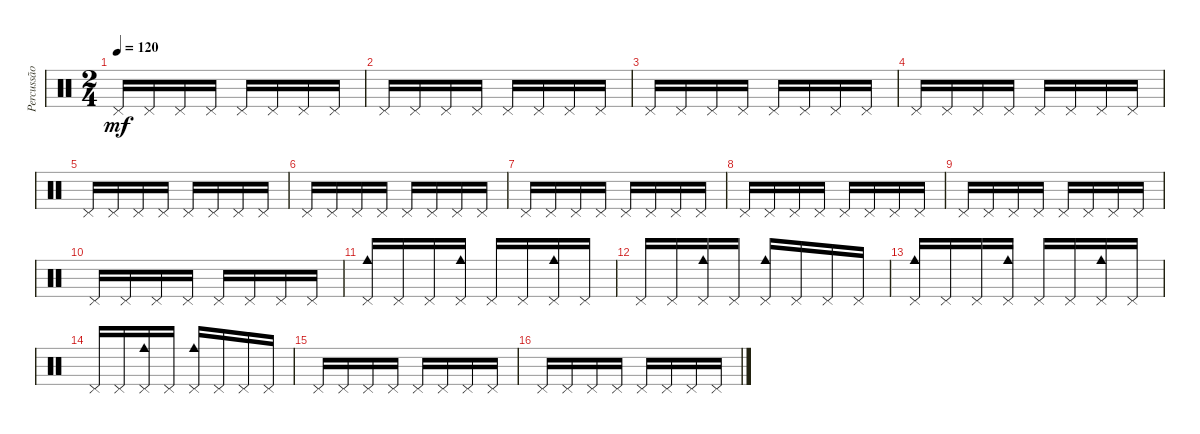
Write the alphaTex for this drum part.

\track ("Percussão" "Percussão") {instrument percussion}
\staff {score}
\articulation defaults
\ts (2 4)
\tempo 120
\clef neutral
\ks c "Pedal Hi-Hat (hit)".16{dy mf} "Pedal Hi-Hat (hit)".16 "Pedal Hi-Hat (hit)".16 "Pedal Hi-Hat (hit)".16 "Pedal Hi-Hat (hit)".16 "Pedal Hi-Hat (hit)".16 "Pedal Hi-Hat (hit)".16 "Pedal Hi-Hat (hit)".16
|
"Pedal Hi-Hat (hit)".16 "Pedal Hi-Hat (hit)".16 "Pedal Hi-Hat (hit)".16 "Pedal Hi-Hat (hit)".16 "Pedal Hi-Hat (hit)".16 "Pedal Hi-Hat (hit)".16 "Pedal Hi-Hat (hit)".16 "Pedal Hi-Hat (hit)".16 |
"Pedal Hi-Hat (hit)".16 "Pedal Hi-Hat (hit)".16 "Pedal Hi-Hat (hit)".16 "Pedal Hi-Hat (hit)".16 "Pedal Hi-Hat (hit)".16 "Pedal Hi-Hat (hit)".16 "Pedal Hi-Hat (hit)".16 "Pedal Hi-Hat (hit)".16 |
"Pedal Hi-Hat (hit)".16 "Pedal Hi-Hat (hit)".16 "Pedal Hi-Hat (hit)".16 "Pedal Hi-Hat (hit)".16 "Pedal Hi-Hat (hit)".16 "Pedal Hi-Hat (hit)".16 "Pedal Hi-Hat (hit)".16 "Pedal Hi-Hat (hit)".16 |
"Pedal Hi-Hat (hit)".16 "Pedal Hi-Hat (hit)".16 "Pedal Hi-Hat (hit)".16 "Pedal Hi-Hat (hit)".16 "Pedal Hi-Hat (hit)".16 "Pedal Hi-Hat (hit)".16 "Pedal Hi-Hat (hit)".16 "Pedal Hi-Hat (hit)".16 |
"Pedal Hi-Hat (hit)".16 "Pedal Hi-Hat (hit)".16 "Pedal Hi-Hat (hit)".16 "Pedal Hi-Hat (hit)".16 "Pedal Hi-Hat (hit)".16 "Pedal Hi-Hat (hit)".16 "Pedal Hi-Hat (hit)".16 "Pedal Hi-Hat (hit)".16 |
"Pedal Hi-Hat (hit)".16 "Pedal Hi-Hat (hit)".16 "Pedal Hi-Hat (hit)".16 "Pedal Hi-Hat (hit)".16 "Pedal Hi-Hat (hit)".16 "Pedal Hi-Hat (hit)".16 "Pedal Hi-Hat (hit)".16 "Pedal Hi-Hat (hit)".16 |
"Pedal Hi-Hat (hit)".16 "Pedal Hi-Hat (hit)".16 "Pedal Hi-Hat (hit)".16 "Pedal Hi-Hat (hit)".16 "Pedal Hi-Hat (hit)".16 "Pedal Hi-Hat (hit)".16 "Pedal Hi-Hat (hit)".16 "Pedal Hi-Hat (hit)".16 |
"Pedal Hi-Hat (hit)".16 "Pedal Hi-Hat (hit)".16 "Pedal Hi-Hat (hit)".16 "Pedal Hi-Hat (hit)".16 "Pedal Hi-Hat (hit)".16 "Pedal Hi-Hat (hit)".16 "Pedal Hi-Hat (hit)".16 "Pedal Hi-Hat (hit)".16 |
"Pedal Hi-Hat (hit)".16 "Pedal Hi-Hat (hit)".16 "Pedal Hi-Hat (hit)".16 "Pedal Hi-Hat (hit)".16 "Pedal Hi-Hat (hit)".16 "Pedal Hi-Hat (hit)".16 "Pedal Hi-Hat (hit)".16 "Pedal Hi-Hat (hit)".16 |
("Pedal Hi-Hat (hit)" "Cowbell medium (hit)").16 "Pedal Hi-Hat (hit)".16 "Pedal Hi-Hat (hit)".16 ("Pedal Hi-Hat (hit)" "Cowbell medium (hit)").16 "Pedal Hi-Hat (hit)".16 "Pedal Hi-Hat (hit)".16 ("Cowbell medium (hit)" "Pedal Hi-Hat (hit)").16 "Pedal Hi-Hat (hit)".16 |
"Pedal Hi-Hat (hit)".16 "Pedal Hi-Hat (hit)".16 ("Pedal Hi-Hat (hit)" "Cowbell medium (hit)").16 "Pedal Hi-Hat (hit)".16 ("Pedal Hi-Hat (hit)" "Cowbell medium (hit)").16 "Pedal Hi-Hat (hit)".16 "Pedal Hi-Hat (hit)".16 "Pedal Hi-Hat (hit)".16 |
("Cowbell medium (hit)" "Pedal Hi-Hat (hit)").16 "Pedal Hi-Hat (hit)".16 "Pedal Hi-Hat (hit)".16 ("Pedal Hi-Hat (hit)" "Cowbell medium (hit)").16 "Pedal Hi-Hat (hit)".16 "Pedal Hi-Hat (hit)".16 ("Pedal Hi-Hat (hit)" "Cowbell medium (hit)").16 "Pedal Hi-Hat (hit)".16 |
"Pedal Hi-Hat (hit)".16 "Pedal Hi-Hat (hit)".16 ("Pedal Hi-Hat (hit)" "Cowbell medium (hit)").16 "Pedal Hi-Hat (hit)".16 ("Pedal Hi-Hat (hit)" "Cowbell medium (hit)").16 "Pedal Hi-Hat (hit)".16 "Pedal Hi-Hat (hit)".16 "Pedal Hi-Hat (hit)".16 |
"Pedal Hi-Hat (hit)".16 "Pedal Hi-Hat (hit)".16 "Pedal Hi-Hat (hit)".16 "Pedal Hi-Hat (hit)".16 "Pedal Hi-Hat (hit)".16 "Pedal Hi-Hat (hit)".16 "Pedal Hi-Hat (hit)".16 "Pedal Hi-Hat (hit)".16 |
"Pedal Hi-Hat (hit)".16 "Pedal Hi-Hat (hit)".16 "Pedal Hi-Hat (hit)".16 "Pedal Hi-Hat (hit)".16 "Pedal Hi-Hat (hit)".16 "Pedal Hi-Hat (hit)".16 "Pedal Hi-Hat (hit)".16 "Pedal Hi-Hat (hit)".16
